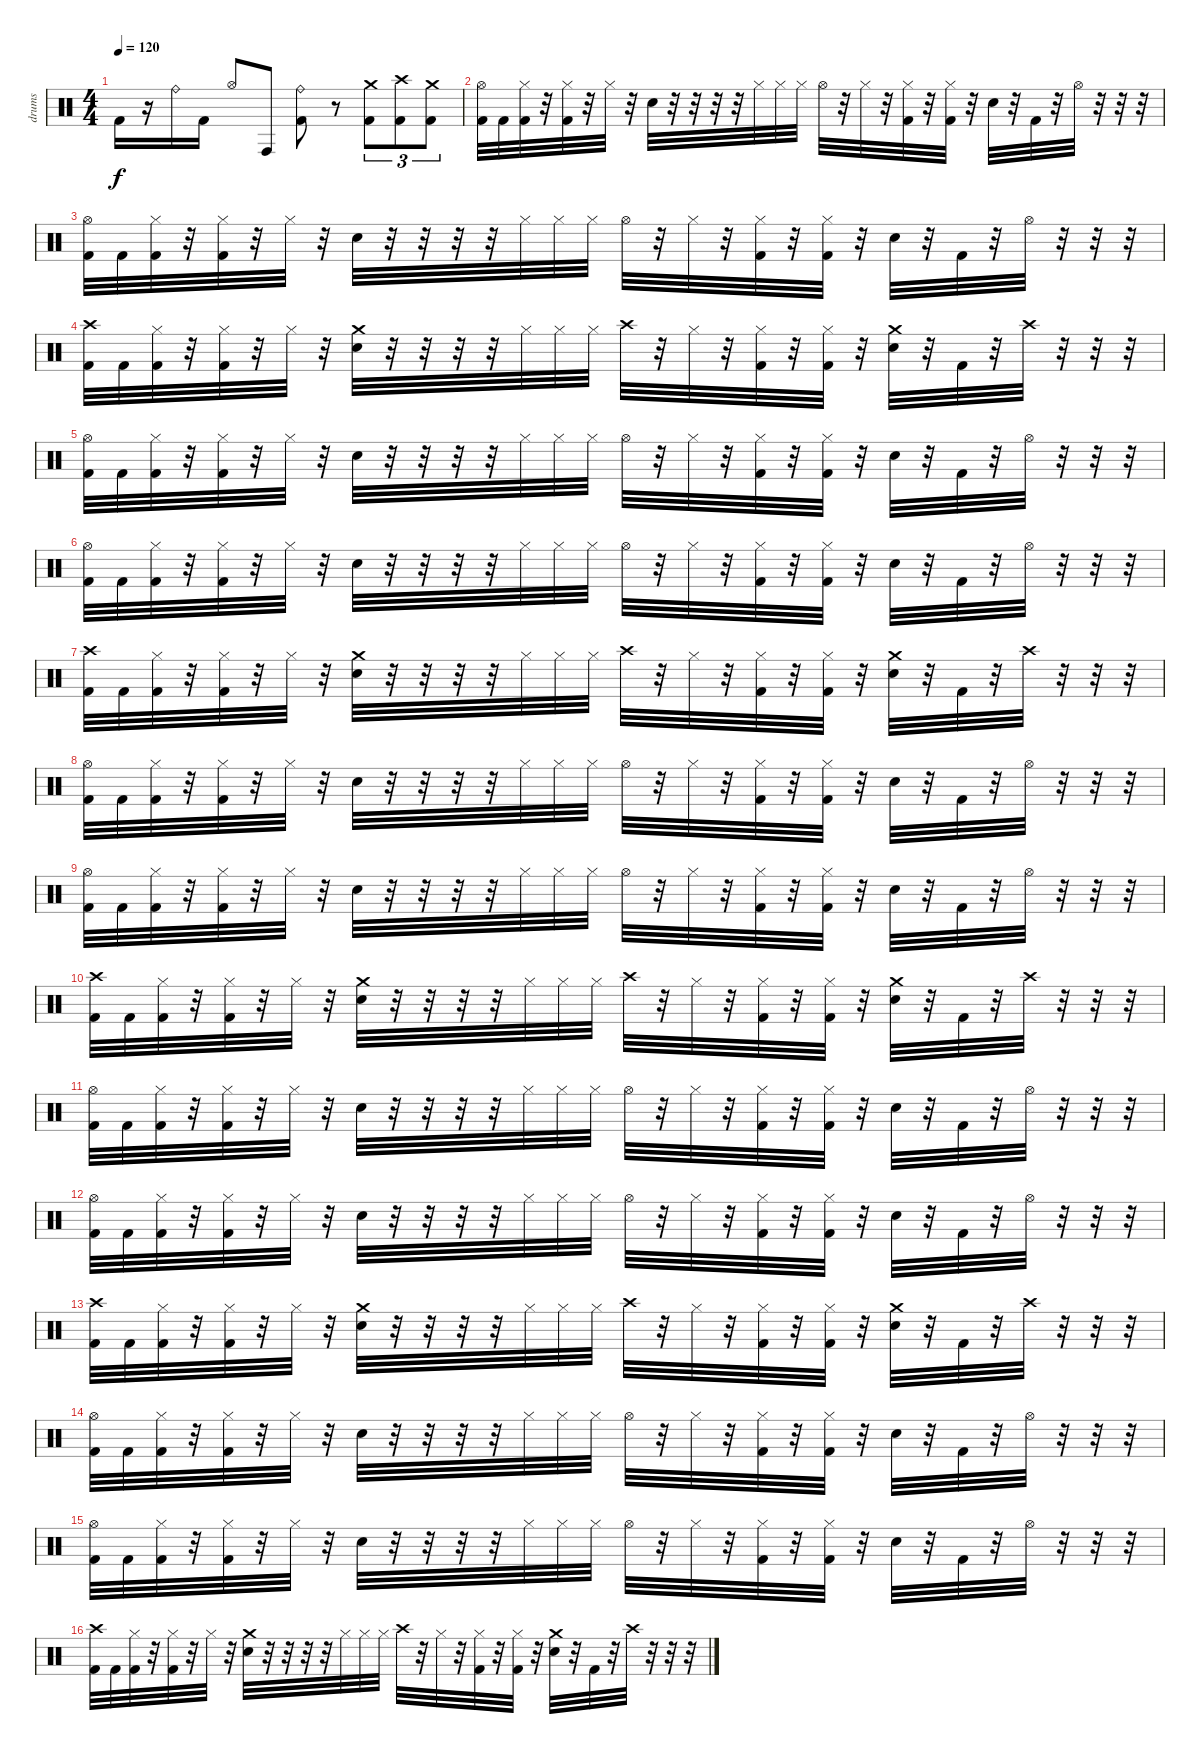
\track ("drums" "drums") {instrument percussion}
\staff {score}
\articulation defaults
\ts (4 4)
\tempo 120
\clef neutral
\ks c "Kick (hit) 2".16{dy f}
r.16 "Ride (bell)".16 "Kick (hit) 2".16 "Hi-Hat (open)".8 "Conga high (hit)".8 ("Ride (bell)" "Kick (hit) 2").8 r.8 ("Crash medium (hit)" "Kick (hit) 2").8{tu (3 2)} ("Crash high (hit)" "Kick (hit) 2").8{tu (3 2)} ("Crash medium (hit)" "Kick (hit) 2").8{tu (3 2)} |
("Hi-Hat (open)" "Kick (hit) 2").32 "Kick (hit) 2".32 ("Hi-Hat (closed)" "Kick (hit) 2").32 r.32 ("Hi-Hat (closed)" "Kick (hit) 2").32 r.32 "Hi-Hat (closed)".32 r.32 "Snare (hit) 2".32 r.32 r.32 r.32 r.32 "Hi-Hat (closed)".32 "Hi-Hat (closed)".32 "Hi-Hat (closed)".32 "Hi-Hat (open)".32 r.32 "Hi-Hat (closed)".32 r.32 ("Hi-Hat (closed)" "Kick (hit) 2").32 r.32 ("Hi-Hat (closed)" "Kick (hit) 2").32 r.32 "Snare (hit) 2".32 r.32 "Kick (hit) 2".32 r.32 "Hi-Hat (open)".32 r.32 r.32 r.32 |
("Hi-Hat (open)" "Kick (hit) 2").32 "Kick (hit) 2".32 ("Hi-Hat (closed)" "Kick (hit) 2").32 r.32 ("Hi-Hat (closed)" "Kick (hit) 2").32 r.32 "Hi-Hat (closed)".32 r.32 "Snare (hit) 2".32 r.32 r.32 r.32 r.32 "Hi-Hat (closed)".32 "Hi-Hat (closed)".32 "Hi-Hat (closed)".32 "Hi-Hat (open)".32 r.32 "Hi-Hat (closed)".32 r.32 ("Hi-Hat (closed)" "Kick (hit) 2").32 r.32 ("Hi-Hat (closed)" "Kick (hit) 2").32 r.32 "Snare (hit) 2".32 r.32 "Kick (hit) 2".32 r.32 "Hi-Hat (open)".32 r.32 r.32 r.32 |
("Crash high (hit)" "Kick (hit) 2").32 "Kick (hit) 2".32 ("Hi-Hat (closed)" "Kick (hit) 2").32 r.32 ("Hi-Hat (closed)" "Kick (hit) 2").32 r.32 "Hi-Hat (closed)".32 r.32 ("Crash medium (hit)" "Snare (hit) 2").32 r.32 r.32 r.32 r.32 "Hi-Hat (closed)".32 "Hi-Hat (closed)".32 "Hi-Hat (closed)".32 "Crash high (hit)".32 r.32 "Hi-Hat (closed)".32 r.32 ("Hi-Hat (closed)" "Kick (hit) 2").32 r.32 ("Hi-Hat (closed)" "Kick (hit) 2").32 r.32 ("Crash medium (hit)" "Snare (hit) 2").32 r.32 "Kick (hit) 2".32 r.32 "Crash high (hit)".32 r.32 r.32 r.32 |
("Hi-Hat (open)" "Kick (hit) 2").32 "Kick (hit) 2".32 ("Hi-Hat (closed)" "Kick (hit) 2").32 r.32 ("Hi-Hat (closed)" "Kick (hit) 2").32 r.32 "Hi-Hat (closed)".32 r.32 "Snare (hit) 2".32 r.32 r.32 r.32 r.32 "Hi-Hat (closed)".32 "Hi-Hat (closed)".32 "Hi-Hat (closed)".32 "Hi-Hat (open)".32 r.32 "Hi-Hat (closed)".32 r.32 ("Hi-Hat (closed)" "Kick (hit) 2").32 r.32 ("Hi-Hat (closed)" "Kick (hit) 2").32 r.32 "Snare (hit) 2".32 r.32 "Kick (hit) 2".32 r.32 "Hi-Hat (open)".32 r.32 r.32 r.32 |
("Hi-Hat (open)" "Kick (hit) 2").32 "Kick (hit) 2".32 ("Hi-Hat (closed)" "Kick (hit) 2").32 r.32 ("Hi-Hat (closed)" "Kick (hit) 2").32 r.32 "Hi-Hat (closed)".32 r.32 "Snare (hit) 2".32 r.32 r.32 r.32 r.32 "Hi-Hat (closed)".32 "Hi-Hat (closed)".32 "Hi-Hat (closed)".32 "Hi-Hat (open)".32 r.32 "Hi-Hat (closed)".32 r.32 ("Hi-Hat (closed)" "Kick (hit) 2").32 r.32 ("Hi-Hat (closed)" "Kick (hit) 2").32 r.32 "Snare (hit) 2".32 r.32 "Kick (hit) 2".32 r.32 "Hi-Hat (open)".32 r.32 r.32 r.32 |
("Crash high (hit)" "Kick (hit) 2").32 "Kick (hit) 2".32 ("Hi-Hat (closed)" "Kick (hit) 2").32 r.32 ("Hi-Hat (closed)" "Kick (hit) 2").32 r.32 "Hi-Hat (closed)".32 r.32 ("Crash medium (hit)" "Snare (hit) 2").32 r.32 r.32 r.32 r.32 "Hi-Hat (closed)".32 "Hi-Hat (closed)".32 "Hi-Hat (closed)".32 "Crash high (hit)".32 r.32 "Hi-Hat (closed)".32 r.32 ("Hi-Hat (closed)" "Kick (hit) 2").32 r.32 ("Hi-Hat (closed)" "Kick (hit) 2").32 r.32 ("Crash medium (hit)" "Snare (hit) 2").32 r.32 "Kick (hit) 2".32 r.32 "Crash high (hit)".32 r.32 r.32 r.32 |
("Hi-Hat (open)" "Kick (hit) 2").32 "Kick (hit) 2".32 ("Hi-Hat (closed)" "Kick (hit) 2").32 r.32 ("Hi-Hat (closed)" "Kick (hit) 2").32 r.32 "Hi-Hat (closed)".32 r.32 "Snare (hit) 2".32 r.32 r.32 r.32 r.32 "Hi-Hat (closed)".32 "Hi-Hat (closed)".32 "Hi-Hat (closed)".32 "Hi-Hat (open)".32 r.32 "Hi-Hat (closed)".32 r.32 ("Hi-Hat (closed)" "Kick (hit) 2").32 r.32 ("Hi-Hat (closed)" "Kick (hit) 2").32 r.32 "Snare (hit) 2".32 r.32 "Kick (hit) 2".32 r.32 "Hi-Hat (open)".32 r.32 r.32 r.32 |
("Hi-Hat (open)" "Kick (hit) 2").32 "Kick (hit) 2".32 ("Hi-Hat (closed)" "Kick (hit) 2").32 r.32 ("Hi-Hat (closed)" "Kick (hit) 2").32 r.32 "Hi-Hat (closed)".32 r.32 "Snare (hit) 2".32 r.32 r.32 r.32 r.32 "Hi-Hat (closed)".32 "Hi-Hat (closed)".32 "Hi-Hat (closed)".32 "Hi-Hat (open)".32 r.32 "Hi-Hat (closed)".32 r.32 ("Hi-Hat (closed)" "Kick (hit) 2").32 r.32 ("Hi-Hat (closed)" "Kick (hit) 2").32 r.32 "Snare (hit) 2".32 r.32 "Kick (hit) 2".32 r.32 "Hi-Hat (open)".32 r.32 r.32 r.32 |
("Crash high (hit)" "Kick (hit) 2").32 "Kick (hit) 2".32 ("Hi-Hat (closed)" "Kick (hit) 2").32 r.32 ("Hi-Hat (closed)" "Kick (hit) 2").32 r.32 "Hi-Hat (closed)".32 r.32 ("Crash medium (hit)" "Snare (hit) 2").32 r.32 r.32 r.32 r.32 "Hi-Hat (closed)".32 "Hi-Hat (closed)".32 "Hi-Hat (closed)".32 "Crash high (hit)".32 r.32 "Hi-Hat (closed)".32 r.32 ("Hi-Hat (closed)" "Kick (hit) 2").32 r.32 ("Hi-Hat (closed)" "Kick (hit) 2").32 r.32 ("Crash medium (hit)" "Snare (hit) 2").32 r.32 "Kick (hit) 2".32 r.32 "Crash high (hit)".32 r.32 r.32 r.32 |
("Hi-Hat (open)" "Kick (hit) 2").32 "Kick (hit) 2".32 ("Hi-Hat (closed)" "Kick (hit) 2").32 r.32 ("Hi-Hat (closed)" "Kick (hit) 2").32 r.32 "Hi-Hat (closed)".32 r.32 "Snare (hit) 2".32 r.32 r.32 r.32 r.32 "Hi-Hat (closed)".32 "Hi-Hat (closed)".32 "Hi-Hat (closed)".32 "Hi-Hat (open)".32 r.32 "Hi-Hat (closed)".32 r.32 ("Hi-Hat (closed)" "Kick (hit) 2").32 r.32 ("Hi-Hat (closed)" "Kick (hit) 2").32 r.32 "Snare (hit) 2".32 r.32 "Kick (hit) 2".32 r.32 "Hi-Hat (open)".32 r.32 r.32 r.32 |
("Hi-Hat (open)" "Kick (hit) 2").32 "Kick (hit) 2".32 ("Hi-Hat (closed)" "Kick (hit) 2").32 r.32 ("Hi-Hat (closed)" "Kick (hit) 2").32 r.32 "Hi-Hat (closed)".32 r.32 "Snare (hit) 2".32 r.32 r.32 r.32 r.32 "Hi-Hat (closed)".32 "Hi-Hat (closed)".32 "Hi-Hat (closed)".32 "Hi-Hat (open)".32 r.32 "Hi-Hat (closed)".32 r.32 ("Hi-Hat (closed)" "Kick (hit) 2").32 r.32 ("Hi-Hat (closed)" "Kick (hit) 2").32 r.32 "Snare (hit) 2".32 r.32 "Kick (hit) 2".32 r.32 "Hi-Hat (open)".32 r.32 r.32 r.32 |
("Crash high (hit)" "Kick (hit) 2").32 "Kick (hit) 2".32 ("Hi-Hat (closed)" "Kick (hit) 2").32 r.32 ("Hi-Hat (closed)" "Kick (hit) 2").32 r.32 "Hi-Hat (closed)".32 r.32 ("Crash medium (hit)" "Snare (hit) 2").32 r.32 r.32 r.32 r.32 "Hi-Hat (closed)".32 "Hi-Hat (closed)".32 "Hi-Hat (closed)".32 "Crash high (hit)".32 r.32 "Hi-Hat (closed)".32 r.32 ("Hi-Hat (closed)" "Kick (hit) 2").32 r.32 ("Hi-Hat (closed)" "Kick (hit) 2").32 r.32 ("Crash medium (hit)" "Snare (hit) 2").32 r.32 "Kick (hit) 2".32 r.32 "Crash high (hit)".32 r.32 r.32 r.32 |
("Hi-Hat (open)" "Kick (hit) 2").32 "Kick (hit) 2".32 ("Hi-Hat (closed)" "Kick (hit) 2").32 r.32 ("Hi-Hat (closed)" "Kick (hit) 2").32 r.32 "Hi-Hat (closed)".32 r.32 "Snare (hit) 2".32 r.32 r.32 r.32 r.32 "Hi-Hat (closed)".32 "Hi-Hat (closed)".32 "Hi-Hat (closed)".32 "Hi-Hat (open)".32 r.32 "Hi-Hat (closed)".32 r.32 ("Hi-Hat (closed)" "Kick (hit) 2").32 r.32 ("Hi-Hat (closed)" "Kick (hit) 2").32 r.32 "Snare (hit) 2".32 r.32 "Kick (hit) 2".32 r.32 "Hi-Hat (open)".32 r.32 r.32 r.32 |
("Hi-Hat (open)" "Kick (hit) 2").32 "Kick (hit) 2".32 ("Hi-Hat (closed)" "Kick (hit) 2").32 r.32 ("Hi-Hat (closed)" "Kick (hit) 2").32 r.32 "Hi-Hat (closed)".32 r.32 "Snare (hit) 2".32 r.32 r.32 r.32 r.32 "Hi-Hat (closed)".32 "Hi-Hat (closed)".32 "Hi-Hat (closed)".32 "Hi-Hat (open)".32 r.32 "Hi-Hat (closed)".32 r.32 ("Hi-Hat (closed)" "Kick (hit) 2").32 r.32 ("Hi-Hat (closed)" "Kick (hit) 2").32 r.32 "Snare (hit) 2".32 r.32 "Kick (hit) 2".32 r.32 "Hi-Hat (open)".32 r.32 r.32 r.32 |
("Crash high (hit)" "Kick (hit) 2").32{volume 0} "Kick (hit) 2".32 ("Hi-Hat (closed)" "Kick (hit) 2").32 r.32 ("Hi-Hat (closed)" "Kick (hit) 2").32 r.32 "Hi-Hat (closed)".32 r.32 ("Crash medium (hit)" "Snare (hit) 2").32 r.32 r.32 r.32 r.32 "Hi-Hat (closed)".32 "Hi-Hat (closed)".32 "Hi-Hat (closed)".32 "Crash high (hit)".32 r.32 "Hi-Hat (closed)".32 r.32 ("Hi-Hat (closed)" "Kick (hit) 2").32 r.32 ("Hi-Hat (closed)" "Kick (hit) 2").32 r.32 ("Crash medium (hit)" "Snare (hit) 2").32 r.32 "Kick (hit) 2".32 r.32 "Crash high (hit)".32 r.32 r.32 r.32
